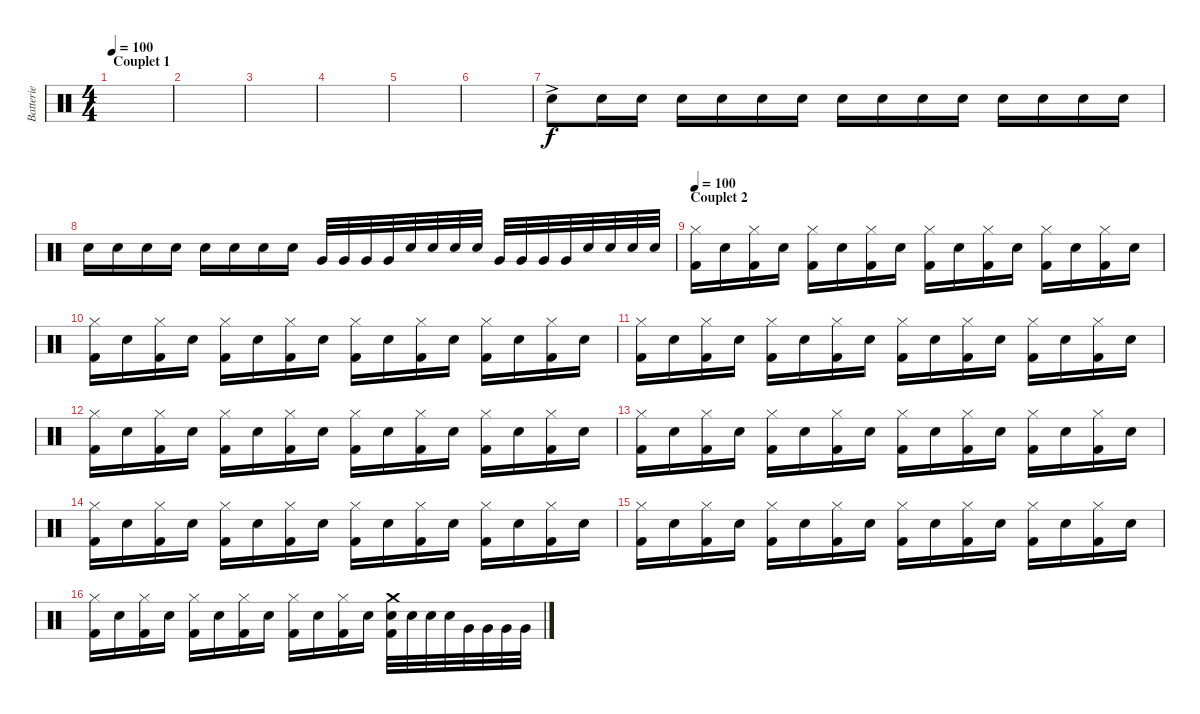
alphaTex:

\track ("Batterie" "Batterie") {instrument percussion}
\staff {score}
\articulation defaults
\ts (4 4)
\section ("" "Couplet 1")
\tempo 100
\tempo 90
\tempo 100
\clef neutral
\ks c
|
|
|
|
|
|
"Snare (hit) 2"{ac}.8{volume 16} "Snare (hit) 2".16{dy f} "Snare (hit) 2".16 "Snare (hit) 2".16 "Snare (hit) 2".16 "Snare (hit) 2".16 "Snare (hit) 2".16 "Snare (hit) 2".16 "Snare (hit) 2".16 "Snare (hit) 2".16 "Snare (hit) 2".16 "Snare (hit) 2".16 "Snare (hit) 2".16 "Snare (hit) 2".16 "Snare (hit) 2".16 |
"Snare (hit) 2".16 "Snare (hit) 2".16 "Snare (hit) 2".16 "Snare (hit) 2".16 "Snare (hit) 2".16 "Snare (hit) 2".16 "Snare (hit) 2".16 "Snare (hit) 2".16 "Very Low Tom (hit)".32 "Very Low Tom (hit)".32 "Very Low Tom (hit)".32 "Very Low Tom (hit)".32 "Snare (hit) 2".32 "Snare (hit) 2".32 "Snare (hit) 2".32 "Snare (hit) 2".32 "Very Low Tom (hit)".32 "Very Low Tom (hit)".32 "Very Low Tom (hit)".32 "Very Low Tom (hit)".32 "Snare (hit) 2".32 "Snare (hit) 2".32 "Snare (hit) 2".32 "Snare (hit) 2".32 |
\section ("" "Couplet 2")
\tempo 100
("Hi-Hat (closed)" "Kick (hit) 2").16 "Snare (hit) 2".16 ("Hi-Hat (closed)" "Kick (hit) 2").16 "Snare (hit) 2".16 ("Hi-Hat (closed)" "Kick (hit) 2").16 "Snare (hit) 2".16 ("Hi-Hat (closed)" "Kick (hit) 2").16 "Snare (hit) 2".16 ("Hi-Hat (closed)" "Kick (hit) 2").16 "Snare (hit) 2".16 ("Hi-Hat (closed)" "Kick (hit) 2").16 "Snare (hit) 2".16 ("Hi-Hat (closed)" "Kick (hit) 2").16 "Snare (hit) 2".16 ("Hi-Hat (closed)" "Kick (hit) 2").16 "Snare (hit) 2".16 |
("Hi-Hat (closed)" "Kick (hit) 2").16 "Snare (hit) 2".16 ("Hi-Hat (closed)" "Kick (hit) 2").16 "Snare (hit) 2".16 ("Hi-Hat (closed)" "Kick (hit) 2").16 "Snare (hit) 2".16 ("Hi-Hat (closed)" "Kick (hit) 2").16 "Snare (hit) 2".16 ("Hi-Hat (closed)" "Kick (hit) 2").16 "Snare (hit) 2".16 ("Hi-Hat (closed)" "Kick (hit) 2").16 "Snare (hit) 2".16 ("Hi-Hat (closed)" "Kick (hit) 2").16 "Snare (hit) 2".16 ("Hi-Hat (closed)" "Kick (hit) 2").16 "Snare (hit) 2".16 |
("Hi-Hat (closed)" "Kick (hit) 2").16 "Snare (hit) 2".16 ("Hi-Hat (closed)" "Kick (hit) 2").16 "Snare (hit) 2".16 ("Hi-Hat (closed)" "Kick (hit) 2").16 "Snare (hit) 2".16 ("Hi-Hat (closed)" "Kick (hit) 2").16 "Snare (hit) 2".16 ("Hi-Hat (closed)" "Kick (hit) 2").16 "Snare (hit) 2".16 ("Hi-Hat (closed)" "Kick (hit) 2").16 "Snare (hit) 2".16 ("Hi-Hat (closed)" "Kick (hit) 2").16 "Snare (hit) 2".16 ("Hi-Hat (closed)" "Kick (hit) 2").16 "Snare (hit) 2".16 |
("Hi-Hat (closed)" "Kick (hit) 2").16 "Snare (hit) 2".16 ("Hi-Hat (closed)" "Kick (hit) 2").16 "Snare (hit) 2".16 ("Hi-Hat (closed)" "Kick (hit) 2").16 "Snare (hit) 2".16 ("Hi-Hat (closed)" "Kick (hit) 2").16 "Snare (hit) 2".16 ("Hi-Hat (closed)" "Kick (hit) 2").16 "Snare (hit) 2".16 ("Hi-Hat (closed)" "Kick (hit) 2").16 "Snare (hit) 2".16 ("Hi-Hat (closed)" "Kick (hit) 2").16 "Snare (hit) 2".16 ("Hi-Hat (closed)" "Kick (hit) 2").16 "Snare (hit) 2".16 |
("Hi-Hat (closed)" "Kick (hit) 2").16 "Snare (hit) 2".16 ("Hi-Hat (closed)" "Kick (hit) 2").16 "Snare (hit) 2".16 ("Hi-Hat (closed)" "Kick (hit) 2").16 "Snare (hit) 2".16 ("Hi-Hat (closed)" "Kick (hit) 2").16 "Snare (hit) 2".16 ("Hi-Hat (closed)" "Kick (hit) 2").16 "Snare (hit) 2".16 ("Hi-Hat (closed)" "Kick (hit) 2").16 "Snare (hit) 2".16 ("Hi-Hat (closed)" "Kick (hit) 2").16 "Snare (hit) 2".16 ("Hi-Hat (closed)" "Kick (hit) 2").16 "Snare (hit) 2".16 |
("Hi-Hat (closed)" "Kick (hit) 2").16 "Snare (hit) 2".16 ("Hi-Hat (closed)" "Kick (hit) 2").16 "Snare (hit) 2".16 ("Hi-Hat (closed)" "Kick (hit) 2").16 "Snare (hit) 2".16 ("Hi-Hat (closed)" "Kick (hit) 2").16 "Snare (hit) 2".16 ("Hi-Hat (closed)" "Kick (hit) 2").16 "Snare (hit) 2".16 ("Hi-Hat (closed)" "Kick (hit) 2").16 "Snare (hit) 2".16 ("Hi-Hat (closed)" "Kick (hit) 2").16 "Snare (hit) 2".16 ("Hi-Hat (closed)" "Kick (hit) 2").16 "Snare (hit) 2".16 |
("Hi-Hat (closed)" "Kick (hit) 2").16 "Snare (hit) 2".16 ("Hi-Hat (closed)" "Kick (hit) 2").16 "Snare (hit) 2".16 ("Hi-Hat (closed)" "Kick (hit) 2").16 "Snare (hit) 2".16 ("Hi-Hat (closed)" "Kick (hit) 2").16 "Snare (hit) 2".16 ("Hi-Hat (closed)" "Kick (hit) 2").16 "Snare (hit) 2".16 ("Hi-Hat (closed)" "Kick (hit) 2").16 "Snare (hit) 2".16 ("Hi-Hat (closed)" "Kick (hit) 2").16 "Snare (hit) 2".16 ("Hi-Hat (closed)" "Kick (hit) 2").16 "Snare (hit) 2".16 |
("Hi-Hat (closed)" "Kick (hit) 2").16 "Snare (hit) 2".16 ("Hi-Hat (closed)" "Kick (hit) 2").16 "Snare (hit) 2".16 ("Hi-Hat (closed)" "Kick (hit) 2").16 "Snare (hit) 2".16 ("Hi-Hat (closed)" "Kick (hit) 2").16 "Snare (hit) 2".16 ("Hi-Hat (closed)" "Kick (hit) 2").16 "Snare (hit) 2".16 ("Hi-Hat (closed)" "Kick (hit) 2").16 "Snare (hit) 2".16 ("Crash medium (hit)" "Snare (hit) 2" "Kick (hit) 2").32 "Snare (hit) 2".32 "Snare (hit) 2".32 "Snare (hit) 2".32 "Very Low Tom (hit)".32 "Very Low Tom (hit)".32 "Very Low Tom (hit)".32 "Very Low Tom (hit)".32
